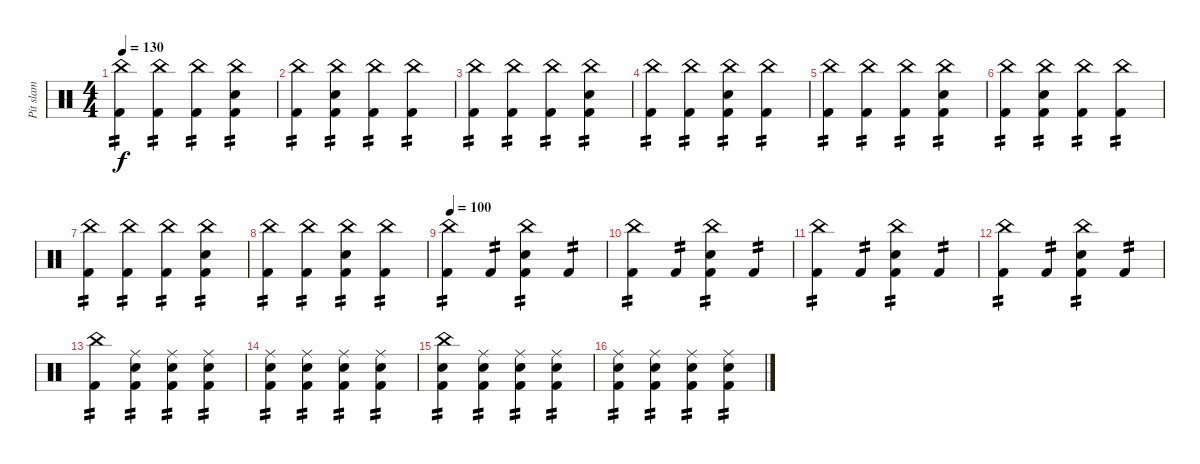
\track ("Pit slam" "Pit slam") {instrument percussion}
\staff {score}
\articulation defaults
\ts (4 4)
\tempo 130
\clef neutral
\ks c
("China (hit)" "Kick (hit) 2").4{tp 2 dy f} ("China (hit)" "Kick (hit) 2").4{tp 2} ("China (hit)" "Kick (hit) 2").4{tp 2} ("China (hit)" "Electric Snare (hit)" "Kick (hit) 2").4{tp 2} |
("China (hit)" "Kick (hit) 2").4{tp 2} ("China (hit)" "Electric Snare (hit)" "Kick (hit) 2").4{tp 2} ("China (hit)" "Kick (hit) 2").4{tp 2} ("China (hit)" "Kick (hit) 2").4{tp 2} |
("China (hit)" "Kick (hit) 2").4{tp 2} ("China (hit)" "Kick (hit) 2").4{tp 2} ("China (hit)" "Kick (hit) 2").4{tp 2} ("China (hit)" "Electric Snare (hit)" "Kick (hit) 2").4{tp 2} |
("China (hit)" "Kick (hit) 2").4{tp 2} ("China (hit)" "Kick (hit) 2").4{tp 2} ("China (hit)" "Electric Snare (hit)" "Kick (hit) 2").4{tp 2} ("China (hit)" "Kick (hit) 2").4{tp 2} |
("China (hit)" "Kick (hit) 2").4{tp 2} ("China (hit)" "Kick (hit) 2").4{tp 2} ("China (hit)" "Kick (hit) 2").4{tp 2} ("China (hit)" "Electric Snare (hit)" "Kick (hit) 2").4{tp 2} |
("China (hit)" "Kick (hit) 2").4{tp 2} ("China (hit)" "Electric Snare (hit)" "Kick (hit) 2").4{tp 2} ("China (hit)" "Kick (hit) 2").4{tp 2} ("China (hit)" "Kick (hit) 2").4{tp 2} |
("China (hit)" "Kick (hit) 2").4{tp 2} ("China (hit)" "Kick (hit) 2").4{tp 2} ("China (hit)" "Kick (hit) 2").4{tp 2} ("China (hit)" "Electric Snare (hit)" "Kick (hit) 2").4{tp 2} |
("China (hit)" "Kick (hit) 2").4{tp 2} ("China (hit)" "Kick (hit) 2").4{tp 2} ("China (hit)" "Electric Snare (hit)" "Kick (hit) 2").4{tp 2} ("China (hit)" "Kick (hit) 2").4{tp 2} |
\tempo 100
("China (hit)" "Kick (hit) 2").4{tp 2} "Kick (hit) 2".4{tp 2} ("China (hit)" "Electric Snare (hit)" "Kick (hit) 2").4{tp 2} "Kick (hit) 2".4{tp 2} |
("China (hit)" "Kick (hit) 2").4{tp 2} "Kick (hit) 2".4{tp 2} ("China (hit)" "Electric Snare (hit)" "Kick (hit) 2").4{tp 2} "Kick (hit) 2".4{tp 2} |
("China (hit)" "Kick (hit) 2").4{tp 2} "Kick (hit) 2".4{tp 2} ("China (hit)" "Electric Snare (hit)" "Kick (hit) 2").4{tp 2} "Kick (hit) 2".4{tp 2} |
("China (hit)" "Kick (hit) 2").4{tp 2} "Kick (hit) 2".4{tp 2} ("China (hit)" "Electric Snare (hit)" "Kick (hit) 2").4{tp 2} "Kick (hit) 2".4{tp 2} |
("China (hit)" "Kick (hit) 2").4{tp 2} ("Ride (middle)" "Electric Snare (hit)" "Kick (hit) 2").4{tp 2} ("Ride (middle)" "Electric Snare (hit)" "Kick (hit) 2").4{tp 2} ("Ride (middle)" "Electric Snare (hit)" "Kick (hit) 2").4{tp 2} |
("Ride (middle)" "Electric Snare (hit)" "Kick (hit) 2").4{tp 2} ("Ride (middle)" "Electric Snare (hit)" "Kick (hit) 2").4{tp 2} ("Ride (middle)" "Electric Snare (hit)" "Kick (hit) 2").4{tp 2} ("Ride (middle)" "Electric Snare (hit)" "Kick (hit) 2").4{tp 2} |
("China (hit)" "Electric Snare (hit)" "Kick (hit) 2").4{tp 2} ("Ride (middle)" "Electric Snare (hit)" "Kick (hit) 2").4{tp 2} ("Ride (middle)" "Electric Snare (hit)" "Kick (hit) 2").4{tp 2} ("Ride (middle)" "Electric Snare (hit)" "Kick (hit) 2").4{tp 2} |
("Ride (middle)" "Electric Snare (hit)" "Kick (hit) 2").4{tp 2} ("Ride (middle)" "Electric Snare (hit)" "Kick (hit) 2").4{tp 2} ("Ride (middle)" "Electric Snare (hit)" "Kick (hit) 2").4{tp 2} ("Ride (middle)" "Electric Snare (hit)" "Kick (hit) 2").4{tp 2}
